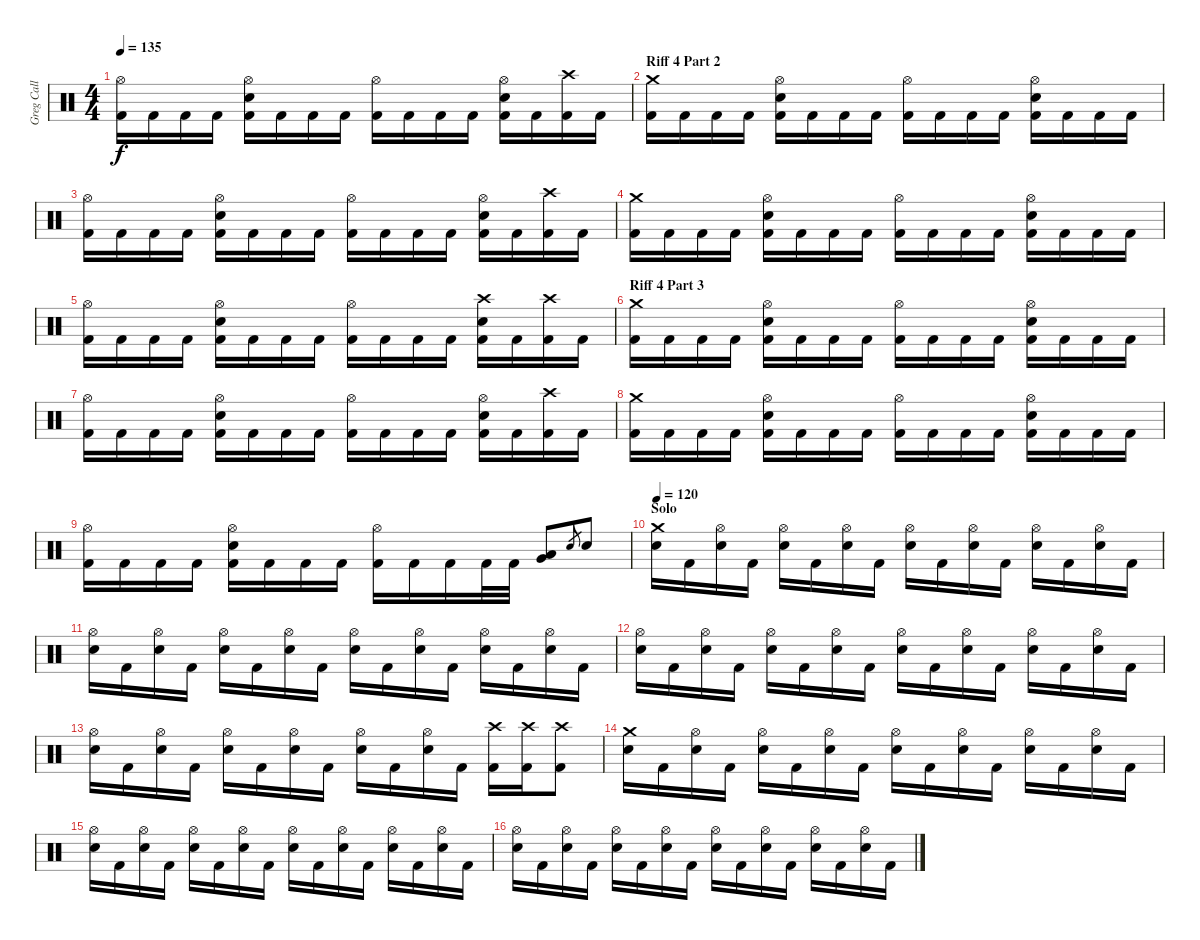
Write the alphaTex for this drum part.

\track ("Greg Call (Drums)" "Greg Call ") {instrument percussion}
\staff {score}
\articulation defaults
\ts (4 4)
\tempo 135
\clef neutral
\ks c
("Hi-Hat (open)" "Kick (hit) 2").16{dy f} "Kick (hit) 2".16 "Kick (hit) 2".16 "Kick (hit) 2".16 ("Hi-Hat (open)" "Snare (hit) 2" "Kick (hit) 2").16 "Kick (hit) 2".16 "Kick (hit) 2".16 "Kick (hit) 2".16 ("Hi-Hat (open)" "Kick (hit) 2").16 "Kick (hit) 2".16 "Kick (hit) 2".16 "Kick (hit) 2".16 ("Hi-Hat (open)" "Snare (hit) 2" "Kick (hit) 2").16 "Kick (hit) 2".16 ("Crash high (hit)" "Kick (hit) 2").16 "Kick (hit) 2".16 |
\section ("" "Riff 4 Part 2 ")
("Crash medium (hit)" "Kick (hit) 2").16 "Kick (hit) 2".16 "Kick (hit) 2".16 "Kick (hit) 2".16 ("Hi-Hat (open)" "Snare (hit) 2" "Kick (hit) 2").16 "Kick (hit) 2".16 "Kick (hit) 2".16 "Kick (hit) 2".16 ("Hi-Hat (open)" "Kick (hit) 2").16 "Kick (hit) 2".16 "Kick (hit) 2".16 "Kick (hit) 2".16 ("Hi-Hat (open)" "Snare (hit) 2" "Kick (hit) 2").16 "Kick (hit) 2".16 "Kick (hit) 2".16 "Kick (hit) 2".16 |
("Hi-Hat (open)" "Kick (hit) 2").16 "Kick (hit) 2".16 "Kick (hit) 2".16 "Kick (hit) 2".16 ("Hi-Hat (open)" "Snare (hit) 2" "Kick (hit) 2").16 "Kick (hit) 2".16 "Kick (hit) 2".16 "Kick (hit) 2".16 ("Hi-Hat (open)" "Kick (hit) 2").16 "Kick (hit) 2".16 "Kick (hit) 2".16 "Kick (hit) 2".16 ("Hi-Hat (open)" "Snare (hit) 2" "Kick (hit) 2").16 "Kick (hit) 2".16 ("Crash high (hit)" "Kick (hit) 2").16 "Kick (hit) 2".16 |
("Crash medium (hit)" "Kick (hit) 2").16 "Kick (hit) 2".16 "Kick (hit) 2".16 "Kick (hit) 2".16 ("Hi-Hat (open)" "Snare (hit) 2" "Kick (hit) 2").16 "Kick (hit) 2".16 "Kick (hit) 2".16 "Kick (hit) 2".16 ("Hi-Hat (open)" "Kick (hit) 2").16 "Kick (hit) 2".16 "Kick (hit) 2".16 "Kick (hit) 2".16 ("Hi-Hat (open)" "Snare (hit) 2" "Kick (hit) 2").16 "Kick (hit) 2".16 "Kick (hit) 2".16 "Kick (hit) 2".16 |
("Hi-Hat (open)" "Kick (hit) 2").16 "Kick (hit) 2".16 "Kick (hit) 2".16 "Kick (hit) 2".16 ("Hi-Hat (open)" "Snare (hit) 2" "Kick (hit) 2").16 "Kick (hit) 2".16 "Kick (hit) 2".16 "Kick (hit) 2".16 ("Hi-Hat (open)" "Kick (hit) 2").16 "Kick (hit) 2".16 "Kick (hit) 2".16 "Kick (hit) 2".16 ("Crash high (hit)" "Snare (hit) 2" "Kick (hit) 2").16 "Kick (hit) 2".16 ("Crash high (hit)" "Kick (hit) 2").16 "Kick (hit) 2".16 |
\section ("" "Riff 4 Part 3")
("Crash medium (hit)" "Kick (hit) 2").16 "Kick (hit) 2".16 "Kick (hit) 2".16 "Kick (hit) 2".16 ("Hi-Hat (open)" "Snare (hit) 2" "Kick (hit) 2").16 "Kick (hit) 2".16 "Kick (hit) 2".16 "Kick (hit) 2".16 ("Hi-Hat (open)" "Kick (hit) 2").16 "Kick (hit) 2".16 "Kick (hit) 2".16 "Kick (hit) 2".16 ("Hi-Hat (open)" "Snare (hit) 2" "Kick (hit) 2").16 "Kick (hit) 2".16 "Kick (hit) 2".16 "Kick (hit) 2".16 |
("Hi-Hat (open)" "Kick (hit) 2").16 "Kick (hit) 2".16 "Kick (hit) 2".16 "Kick (hit) 2".16 ("Hi-Hat (open)" "Snare (hit) 2" "Kick (hit) 2").16 "Kick (hit) 2".16 "Kick (hit) 2".16 "Kick (hit) 2".16 ("Hi-Hat (open)" "Kick (hit) 2").16 "Kick (hit) 2".16 "Kick (hit) 2".16 "Kick (hit) 2".16 ("Hi-Hat (open)" "Snare (hit) 2" "Kick (hit) 2").16 "Kick (hit) 2".16 ("Crash high (hit)" "Kick (hit) 2").16 "Kick (hit) 2".16 |
("Crash medium (hit)" "Kick (hit) 2").16 "Kick (hit) 2".16 "Kick (hit) 2".16 "Kick (hit) 2".16 ("Hi-Hat (open)" "Snare (hit) 2" "Kick (hit) 2").16 "Kick (hit) 2".16 "Kick (hit) 2".16 "Kick (hit) 2".16 ("Hi-Hat (open)" "Kick (hit) 2").16 "Kick (hit) 2".16 "Kick (hit) 2".16 "Kick (hit) 2".16 ("Hi-Hat (open)" "Snare (hit) 2" "Kick (hit) 2").16 "Kick (hit) 2".16 "Kick (hit) 2".16 "Kick (hit) 2".16 |
("Hi-Hat (open)" "Kick (hit) 2").16 "Kick (hit) 2".16 "Kick (hit) 2".16 "Kick (hit) 2".16 ("Hi-Hat (open)" "Snare (hit) 2" "Kick (hit) 2").16 "Kick (hit) 2".16 "Kick (hit) 2".16 "Kick (hit) 2".16 ("Hi-Hat (open)" "Kick (hit) 2").16 "Kick (hit) 2".16 "Kick (hit) 2".16 "Kick (hit) 2".32 "Kick (hit) 2".32 ("Very Low Tom (hit)" "Low Floor Tom (hit)").8 "Snare (hit) 2".8{gr} "Snare (hit) 2".8 |
\section ("" "Solo")
\tempo 120
("Crash medium (hit)" "Snare (hit) 2").16 "Kick (hit) 2".16 ("Hi-Hat (open)" "Snare (hit) 2").16 "Kick (hit) 2".16 ("Hi-Hat (open)" "Snare (hit) 2").16 "Kick (hit) 2".16 ("Hi-Hat (open)" "Snare (hit) 2").16 "Kick (hit) 2".16 ("Hi-Hat (open)" "Snare (hit) 2").16 "Kick (hit) 2".16 ("Hi-Hat (open)" "Snare (hit) 2").16 "Kick (hit) 2".16 ("Hi-Hat (open)" "Snare (hit) 2").16 "Kick (hit) 2".16 ("Hi-Hat (open)" "Snare (hit) 2").16 "Kick (hit) 2".16 |
("Hi-Hat (open)" "Snare (hit) 2").16 "Kick (hit) 2".16 ("Hi-Hat (open)" "Snare (hit) 2").16 "Kick (hit) 2".16 ("Hi-Hat (open)" "Snare (hit) 2").16 "Kick (hit) 2".16 ("Hi-Hat (open)" "Snare (hit) 2").16 "Kick (hit) 2".16 ("Hi-Hat (open)" "Snare (hit) 2").16 "Kick (hit) 2".16 ("Hi-Hat (open)" "Snare (hit) 2").16 "Kick (hit) 2".16 ("Hi-Hat (open)" "Snare (hit) 2").16 "Kick (hit) 2".16 ("Hi-Hat (open)" "Snare (hit) 2").16 "Kick (hit) 2".16 |
("Hi-Hat (open)" "Snare (hit) 2").16 "Kick (hit) 2".16 ("Hi-Hat (open)" "Snare (hit) 2").16 "Kick (hit) 2".16 ("Hi-Hat (open)" "Snare (hit) 2").16 "Kick (hit) 2".16 ("Hi-Hat (open)" "Snare (hit) 2").16 "Kick (hit) 2".16 ("Hi-Hat (open)" "Snare (hit) 2").16 "Kick (hit) 2".16 ("Hi-Hat (open)" "Snare (hit) 2").16 "Kick (hit) 2".16 ("Hi-Hat (open)" "Snare (hit) 2").16 "Kick (hit) 2".16 ("Hi-Hat (open)" "Snare (hit) 2").16 "Kick (hit) 2".16 |
("Hi-Hat (open)" "Snare (hit) 2").16 "Kick (hit) 2".16 ("Hi-Hat (open)" "Snare (hit) 2").16 "Kick (hit) 2".16 ("Hi-Hat (open)" "Snare (hit) 2").16 "Kick (hit) 2".16 ("Hi-Hat (open)" "Snare (hit) 2").16 "Kick (hit) 2".16 ("Hi-Hat (open)" "Snare (hit) 2").16 "Kick (hit) 2".16 ("Snare (hit) 2" "Hi-Hat (open)").16 "Kick (hit) 2".16 ("Crash high (hit)" "Kick (hit) 2").16 ("Crash high (hit)" "Kick (hit) 2").16 ("Crash high (hit)" "Kick (hit) 2").8 |
("Crash medium (hit)" "Snare (hit) 2").16 "Kick (hit) 2".16 ("Hi-Hat (open)" "Snare (hit) 2").16 "Kick (hit) 2".16 ("Hi-Hat (open)" "Snare (hit) 2").16 "Kick (hit) 2".16 ("Hi-Hat (open)" "Snare (hit) 2").16 "Kick (hit) 2".16 ("Hi-Hat (open)" "Snare (hit) 2").16 "Kick (hit) 2".16 ("Hi-Hat (open)" "Snare (hit) 2").16 "Kick (hit) 2".16 ("Hi-Hat (open)" "Snare (hit) 2").16 "Kick (hit) 2".16 ("Hi-Hat (open)" "Snare (hit) 2").16 "Kick (hit) 2".16 |
("Hi-Hat (open)" "Snare (hit) 2").16 "Kick (hit) 2".16 ("Hi-Hat (open)" "Snare (hit) 2").16 "Kick (hit) 2".16 ("Hi-Hat (open)" "Snare (hit) 2").16 "Kick (hit) 2".16 ("Hi-Hat (open)" "Snare (hit) 2").16 "Kick (hit) 2".16 ("Hi-Hat (open)" "Snare (hit) 2").16 "Kick (hit) 2".16 ("Hi-Hat (open)" "Snare (hit) 2").16 "Kick (hit) 2".16 ("Hi-Hat (open)" "Snare (hit) 2").16 "Kick (hit) 2".16 ("Hi-Hat (open)" "Snare (hit) 2").16 "Kick (hit) 2".16 |
("Hi-Hat (open)" "Snare (hit) 2").16 "Kick (hit) 2".16 ("Hi-Hat (open)" "Snare (hit) 2").16 "Kick (hit) 2".16 ("Hi-Hat (open)" "Snare (hit) 2").16 "Kick (hit) 2".16 ("Hi-Hat (open)" "Snare (hit) 2").16 "Kick (hit) 2".16 ("Hi-Hat (open)" "Snare (hit) 2").16 "Kick (hit) 2".16 ("Hi-Hat (open)" "Snare (hit) 2").16 "Kick (hit) 2".16 ("Hi-Hat (open)" "Snare (hit) 2").16 "Kick (hit) 2".16 ("Hi-Hat (open)" "Snare (hit) 2").16 "Kick (hit) 2".16
